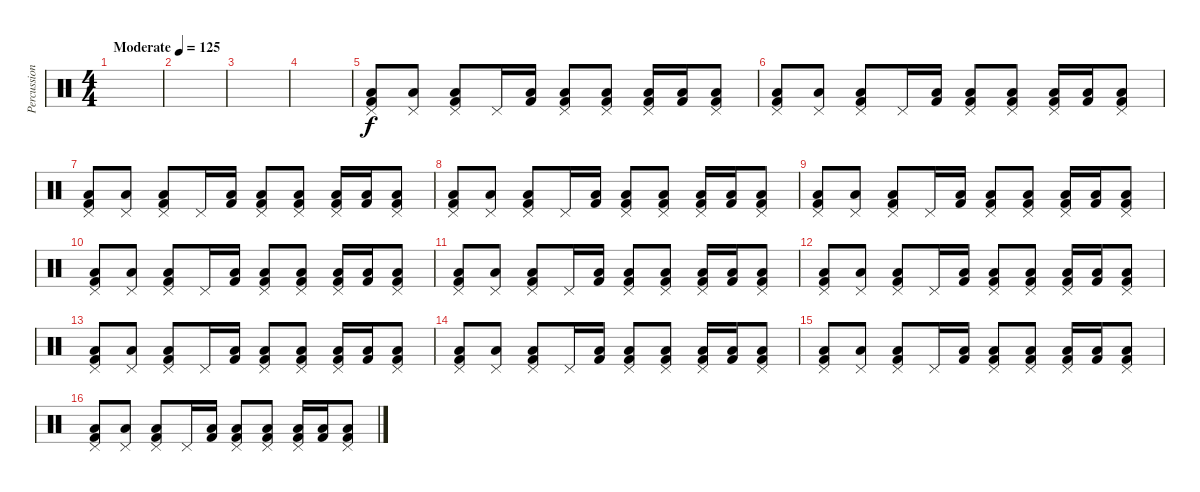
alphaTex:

\track ("Percussion2" "Percussion") {instrument percussion}
\staff {score}
\articulation defaults
\ts (4 4)
\tempo (125 "Moderate")
\clef neutral
\ks c
|
|
|
|
("Pedal Hi-Hat (hit)" "Low Floor Tom (hit)" "Kick (hit) 2").8 ("Pedal Hi-Hat (hit)" "Low Tom (hit)").8 ("Pedal Hi-Hat (hit)" "Low Floor Tom (hit)" "Kick (hit) 2").8 "Pedal Hi-Hat (hit)".16 ("Low Floor Tom (hit)" "Kick (hit) 2").16 ("Pedal Hi-Hat (hit)" "Low Tom (hit)" "Kick (hit) 2").8 ("Pedal Hi-Hat (hit)" "Low Floor Tom (hit)" "Kick (hit) 2").8 ("Pedal Hi-Hat (hit)" "Low Floor Tom (hit)" "Kick (hit) 2").16 ("Low Tom (hit)" "Kick (hit) 2").16 ("Pedal Hi-Hat (hit)" "Low Floor Tom (hit)" "Kick (hit) 2").8 |
("Pedal Hi-Hat (hit)" "Low Floor Tom (hit)" "Kick (hit) 2").8 ("Pedal Hi-Hat (hit)" "Low Tom (hit)").8 ("Pedal Hi-Hat (hit)" "Low Floor Tom (hit)" "Kick (hit) 2").8 "Pedal Hi-Hat (hit)".16 ("Low Floor Tom (hit)" "Kick (hit) 2").16 ("Pedal Hi-Hat (hit)" "Low Tom (hit)" "Kick (hit) 2").8 ("Pedal Hi-Hat (hit)" "Low Floor Tom (hit)" "Kick (hit) 2").8 ("Pedal Hi-Hat (hit)" "Low Floor Tom (hit)" "Kick (hit) 2").16 ("Low Tom (hit)" "Kick (hit) 2").16 ("Pedal Hi-Hat (hit)" "Low Floor Tom (hit)" "Kick (hit) 2").8 |
("Pedal Hi-Hat (hit)" "Low Floor Tom (hit)" "Kick (hit) 2").8 ("Pedal Hi-Hat (hit)" "Low Tom (hit)").8 ("Pedal Hi-Hat (hit)" "Low Floor Tom (hit)" "Kick (hit) 2").8 "Pedal Hi-Hat (hit)".16 ("Low Floor Tom (hit)" "Kick (hit) 2").16 ("Pedal Hi-Hat (hit)" "Low Tom (hit)" "Kick (hit) 2").8 ("Pedal Hi-Hat (hit)" "Low Floor Tom (hit)" "Kick (hit) 2").8 ("Pedal Hi-Hat (hit)" "Low Floor Tom (hit)" "Kick (hit) 2").16 ("Low Tom (hit)" "Kick (hit) 2").16 ("Pedal Hi-Hat (hit)" "Low Floor Tom (hit)" "Kick (hit) 2").8 |
("Pedal Hi-Hat (hit)" "Low Floor Tom (hit)" "Kick (hit) 2").8 ("Pedal Hi-Hat (hit)" "Low Tom (hit)").8 ("Pedal Hi-Hat (hit)" "Low Floor Tom (hit)" "Kick (hit) 2").8 "Pedal Hi-Hat (hit)".16 ("Low Floor Tom (hit)" "Kick (hit) 2").16 ("Pedal Hi-Hat (hit)" "Low Tom (hit)" "Kick (hit) 2").8 ("Pedal Hi-Hat (hit)" "Low Floor Tom (hit)" "Kick (hit) 2").8 ("Pedal Hi-Hat (hit)" "Low Floor Tom (hit)" "Kick (hit) 2").16 ("Low Tom (hit)" "Kick (hit) 2").16 ("Pedal Hi-Hat (hit)" "Low Floor Tom (hit)" "Kick (hit) 2").8 |
("Pedal Hi-Hat (hit)" "Low Floor Tom (hit)" "Kick (hit) 2").8 ("Pedal Hi-Hat (hit)" "Low Tom (hit)").8 ("Pedal Hi-Hat (hit)" "Low Floor Tom (hit)" "Kick (hit) 2").8 "Pedal Hi-Hat (hit)".16 ("Low Floor Tom (hit)" "Kick (hit) 2").16 ("Pedal Hi-Hat (hit)" "Low Tom (hit)" "Kick (hit) 2").8 ("Pedal Hi-Hat (hit)" "Low Floor Tom (hit)" "Kick (hit) 2").8 ("Pedal Hi-Hat (hit)" "Low Floor Tom (hit)" "Kick (hit) 2").16 ("Low Tom (hit)" "Kick (hit) 2").16 ("Pedal Hi-Hat (hit)" "Low Floor Tom (hit)" "Kick (hit) 2").8 |
("Pedal Hi-Hat (hit)" "Low Floor Tom (hit)" "Kick (hit) 2").8 ("Pedal Hi-Hat (hit)" "Low Tom (hit)").8 ("Pedal Hi-Hat (hit)" "Low Floor Tom (hit)" "Kick (hit) 2").8 "Pedal Hi-Hat (hit)".16 ("Low Floor Tom (hit)" "Kick (hit) 2").16 ("Pedal Hi-Hat (hit)" "Low Tom (hit)" "Kick (hit) 2").8 ("Pedal Hi-Hat (hit)" "Low Floor Tom (hit)" "Kick (hit) 2").8 ("Pedal Hi-Hat (hit)" "Low Floor Tom (hit)" "Kick (hit) 2").16 ("Low Tom (hit)" "Kick (hit) 2").16 ("Pedal Hi-Hat (hit)" "Low Floor Tom (hit)" "Kick (hit) 2").8 |
("Pedal Hi-Hat (hit)" "Low Floor Tom (hit)" "Kick (hit) 2").8 ("Pedal Hi-Hat (hit)" "Low Tom (hit)").8 ("Pedal Hi-Hat (hit)" "Low Floor Tom (hit)" "Kick (hit) 2").8 "Pedal Hi-Hat (hit)".16 ("Low Floor Tom (hit)" "Kick (hit) 2").16 ("Pedal Hi-Hat (hit)" "Low Tom (hit)" "Kick (hit) 2").8 ("Pedal Hi-Hat (hit)" "Low Floor Tom (hit)" "Kick (hit) 2").8 ("Pedal Hi-Hat (hit)" "Low Floor Tom (hit)" "Kick (hit) 2").16 ("Low Tom (hit)" "Kick (hit) 2").16 ("Pedal Hi-Hat (hit)" "Low Floor Tom (hit)" "Kick (hit) 2").8 |
("Pedal Hi-Hat (hit)" "Low Floor Tom (hit)" "Kick (hit) 2").8 ("Pedal Hi-Hat (hit)" "Low Tom (hit)").8 ("Pedal Hi-Hat (hit)" "Low Floor Tom (hit)" "Kick (hit) 2").8 "Pedal Hi-Hat (hit)".16 ("Low Floor Tom (hit)" "Kick (hit) 2").16 ("Pedal Hi-Hat (hit)" "Low Tom (hit)" "Kick (hit) 2").8 ("Pedal Hi-Hat (hit)" "Low Floor Tom (hit)" "Kick (hit) 2").8 ("Pedal Hi-Hat (hit)" "Low Floor Tom (hit)" "Kick (hit) 2").16 ("Low Tom (hit)" "Kick (hit) 2").16 ("Pedal Hi-Hat (hit)" "Low Floor Tom (hit)" "Kick (hit) 2").8 |
("Pedal Hi-Hat (hit)" "Low Floor Tom (hit)" "Kick (hit) 2").8 ("Pedal Hi-Hat (hit)" "Low Tom (hit)").8 ("Pedal Hi-Hat (hit)" "Low Floor Tom (hit)" "Kick (hit) 2").8 "Pedal Hi-Hat (hit)".16 ("Low Floor Tom (hit)" "Kick (hit) 2").16 ("Pedal Hi-Hat (hit)" "Low Tom (hit)" "Kick (hit) 2").8 ("Pedal Hi-Hat (hit)" "Low Floor Tom (hit)" "Kick (hit) 2").8 ("Pedal Hi-Hat (hit)" "Low Floor Tom (hit)" "Kick (hit) 2").16 ("Low Tom (hit)" "Kick (hit) 2").16 ("Pedal Hi-Hat (hit)" "Low Floor Tom (hit)" "Kick (hit) 2").8 |
("Pedal Hi-Hat (hit)" "Low Floor Tom (hit)" "Kick (hit) 2").8 ("Pedal Hi-Hat (hit)" "Low Tom (hit)").8 ("Pedal Hi-Hat (hit)" "Low Floor Tom (hit)" "Kick (hit) 2").8 "Pedal Hi-Hat (hit)".16 ("Low Floor Tom (hit)" "Kick (hit) 2").16 ("Pedal Hi-Hat (hit)" "Low Tom (hit)" "Kick (hit) 2").8 ("Pedal Hi-Hat (hit)" "Low Floor Tom (hit)" "Kick (hit) 2").8 ("Pedal Hi-Hat (hit)" "Low Floor Tom (hit)" "Kick (hit) 2").16 ("Low Tom (hit)" "Kick (hit) 2").16 ("Pedal Hi-Hat (hit)" "Low Floor Tom (hit)" "Kick (hit) 2").8 |
("Pedal Hi-Hat (hit)" "Low Floor Tom (hit)" "Kick (hit) 2").8 ("Pedal Hi-Hat (hit)" "Low Tom (hit)").8 ("Pedal Hi-Hat (hit)" "Low Floor Tom (hit)" "Kick (hit) 2").8 "Pedal Hi-Hat (hit)".16 ("Low Floor Tom (hit)" "Kick (hit) 2").16 ("Pedal Hi-Hat (hit)" "Low Tom (hit)" "Kick (hit) 2").8 ("Pedal Hi-Hat (hit)" "Low Floor Tom (hit)" "Kick (hit) 2").8 ("Pedal Hi-Hat (hit)" "Low Floor Tom (hit)" "Kick (hit) 2").16 ("Low Tom (hit)" "Kick (hit) 2").16 ("Pedal Hi-Hat (hit)" "Low Floor Tom (hit)" "Kick (hit) 2").8 |
("Pedal Hi-Hat (hit)" "Low Floor Tom (hit)" "Kick (hit) 2").8 ("Pedal Hi-Hat (hit)" "Low Tom (hit)").8 ("Pedal Hi-Hat (hit)" "Low Floor Tom (hit)" "Kick (hit) 2").8 "Pedal Hi-Hat (hit)".16 ("Low Floor Tom (hit)" "Kick (hit) 2").16 ("Pedal Hi-Hat (hit)" "Low Tom (hit)" "Kick (hit) 2").8 ("Pedal Hi-Hat (hit)" "Low Floor Tom (hit)" "Kick (hit) 2").8 ("Pedal Hi-Hat (hit)" "Low Floor Tom (hit)" "Kick (hit) 2").16 ("Low Tom (hit)" "Kick (hit) 2").16 ("Pedal Hi-Hat (hit)" "Low Floor Tom (hit)" "Kick (hit) 2").8
